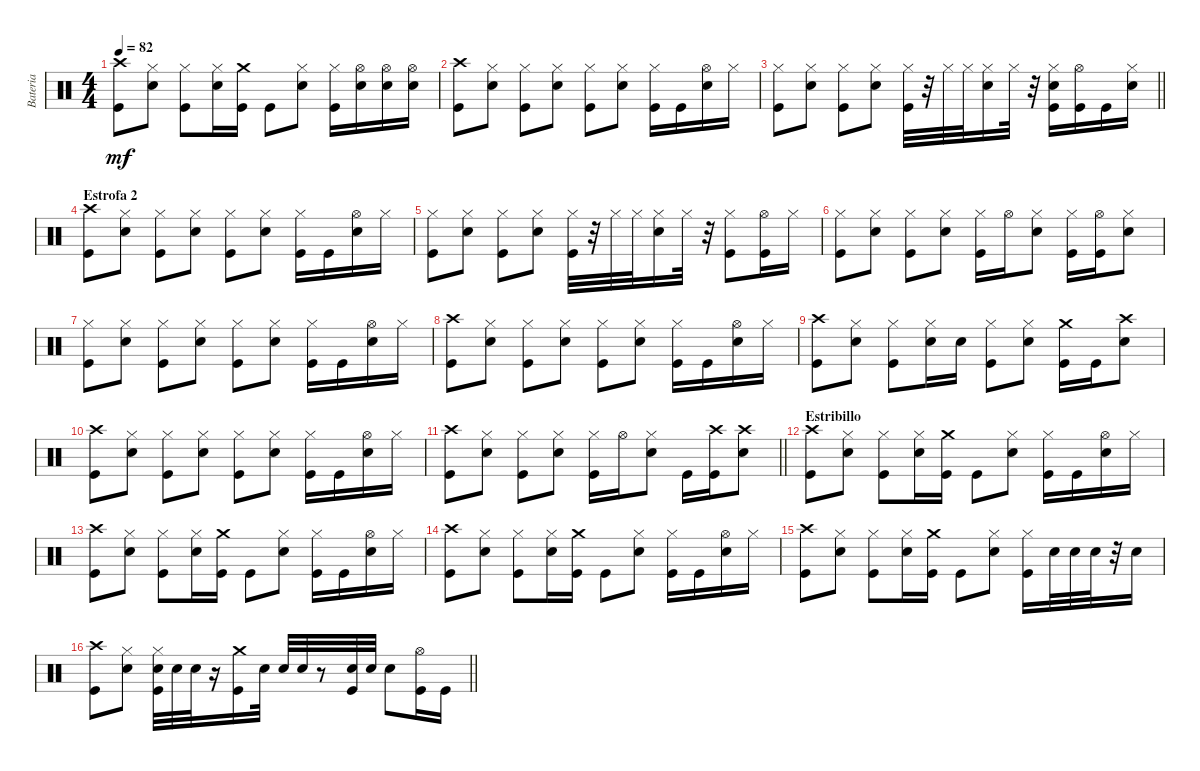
\track ("Bateria" "Bateria") {instrument percussion}
\staff {score}
\articulation defaults
\ts (4 4)
\tempo 82
\clef neutral
\ks c
("Crash high (hit)" "Kick (hit)").8{dy mf} ("Snare (hit) 2" "Hi-Hat (closed)").8 ("Kick (hit)" "Hi-Hat (closed)").8 ("Hi-Hat (closed)" "Snare (hit) 2").16 ("Kick (hit)" "Crash medium (hit)").16 "Kick (hit)".8 ("Snare (hit) 2" "Hi-Hat (closed)").8 ("Kick (hit)" "Hi-Hat (closed)").16 ("Snare (hit) 2" "Hi-Hat (open)").16 ("Snare (hit) 2" "Hi-Hat (open)").16 ("Hi-Hat (open)" "Snare (hit) 2").16 |
("Crash high (hit)" "Kick (hit)").8 ("Snare (hit) 2" "Hi-Hat (closed)").8 ("Kick (hit)" "Hi-Hat (closed)").8 ("Hi-Hat (closed)" "Snare (hit) 2").8 ("Kick (hit)" "Hi-Hat (closed)").8 ("Snare (hit) 2" "Hi-Hat (closed)").8 ("Kick (hit)" "Hi-Hat (closed)").16 "Kick (hit)".16 ("Hi-Hat (open)" "Snare (hit) 2").16 "Hi-Hat (closed)".16 |
\barLineRight lightlight
("Kick (hit)" "Hi-Hat (closed)").8 ("Snare (hit) 2" "Hi-Hat (closed)").8 ("Kick (hit)" "Hi-Hat (closed)").8 ("Hi-Hat (closed)" "Snare (hit) 2").8 ("Kick (hit)" "Hi-Hat (closed)").32 r.32 "Hi-Hat (closed)".32 "Hi-Hat (closed)".32 ("Hi-Hat (closed)" "Snare (hit) 2").16 "Hi-Hat (closed)".32 r.32 ("Kick (hit)" "Hi-Hat (closed)" "Snare (hit) 2").16 ("Kick (hit)" "Hi-Hat (open)").16 "Kick (hit)".16 ("Hi-Hat (closed)" "Snare (hit) 2").16 |
\section ("" "Estrofa 2")
("Crash high (hit)" "Kick (hit)").8 ("Snare (hit) 2" "Hi-Hat (closed)").8 ("Kick (hit)" "Hi-Hat (closed)").8 ("Hi-Hat (closed)" "Snare (hit) 2").8 ("Kick (hit)" "Hi-Hat (closed)").8 ("Snare (hit) 2" "Hi-Hat (closed)").8 ("Kick (hit)" "Hi-Hat (closed)").16 "Kick (hit)".16 ("Hi-Hat (open)" "Snare (hit) 2").16 "Hi-Hat (closed)".16 |
("Kick (hit)" "Hi-Hat (closed)").8 ("Snare (hit) 2" "Hi-Hat (closed)").8 ("Kick (hit)" "Hi-Hat (closed)").8 ("Hi-Hat (closed)" "Snare (hit) 2").8 ("Kick (hit)" "Hi-Hat (closed)").32 r.32 "Hi-Hat (closed)".32 "Hi-Hat (closed)".32 ("Hi-Hat (closed)" "Snare (hit) 2").16 "Hi-Hat (closed)".32 r.32 ("Kick (hit)" "Hi-Hat (closed)").8 ("Kick (hit)" "Hi-Hat (open)").16 "Hi-Hat (closed)".16 |
("Kick (hit)" "Hi-Hat (closed)").8 ("Snare (hit) 2" "Hi-Hat (closed)").8 ("Kick (hit)" "Hi-Hat (closed)").8 ("Hi-Hat (closed)" "Snare (hit) 2").8 ("Kick (hit)" "Hi-Hat (closed)").16 "Hi-Hat (open)".16 ("Snare (hit) 2" "Hi-Hat (closed)").8 ("Kick (hit)" "Hi-Hat (closed)").16 ("Kick (hit)" "Hi-Hat (open)").16 ("Hi-Hat (closed)" "Snare (hit) 2").8 |
("Kick (hit)" "Hi-Hat (closed)").8 ("Snare (hit) 2" "Hi-Hat (closed)").8 ("Kick (hit)" "Hi-Hat (closed)").8 ("Hi-Hat (closed)" "Snare (hit) 2").8 ("Kick (hit)" "Hi-Hat (closed)").8 ("Snare (hit) 2" "Hi-Hat (closed)").8 ("Kick (hit)" "Hi-Hat (closed)").16 "Kick (hit)".16 ("Hi-Hat (open)" "Snare (hit) 2").16 "Hi-Hat (closed)".16 |
("Crash high (hit)" "Kick (hit)").8 ("Snare (hit) 2" "Hi-Hat (closed)").8 ("Kick (hit)" "Hi-Hat (closed)").8 ("Hi-Hat (closed)" "Snare (hit) 2").8 ("Kick (hit)" "Hi-Hat (closed)").8 ("Snare (hit) 2" "Hi-Hat (closed)").8 ("Kick (hit)" "Hi-Hat (closed)").16 "Kick (hit)".16 ("Hi-Hat (open)" "Snare (hit) 2").16 "Hi-Hat (closed)".16 |
("Crash high (hit)" "Kick (hit)").8 ("Snare (hit) 2" "Hi-Hat (closed)").8 ("Kick (hit)" "Hi-Hat (closed)").8 ("Hi-Hat (closed)" "Snare (hit) 2").16 "Snare (hit) 2".16 ("Kick (hit)" "Hi-Hat (closed)").8 ("Snare (hit) 2" "Hi-Hat (closed)").8 ("Kick (hit)" "Crash medium (hit)").16 "Kick (hit)".16 ("Snare (hit) 2" "Crash high (hit)").8 |
("Crash high (hit)" "Kick (hit)").8 ("Snare (hit) 2" "Hi-Hat (closed)").8 ("Kick (hit)" "Hi-Hat (closed)").8 ("Hi-Hat (closed)" "Snare (hit) 2").8 ("Kick (hit)" "Hi-Hat (closed)").8 ("Snare (hit) 2" "Hi-Hat (closed)").8 ("Kick (hit)" "Hi-Hat (closed)").16 "Kick (hit)".16 ("Hi-Hat (open)" "Snare (hit) 2").16 "Hi-Hat (closed)".16 |
\barLineRight lightlight
("Crash high (hit)" "Kick (hit)").8 ("Snare (hit) 2" "Hi-Hat (closed)").8 ("Kick (hit)" "Hi-Hat (closed)").8 ("Hi-Hat (closed)" "Snare (hit) 2").8 ("Kick (hit)" "Hi-Hat (closed)").16 "Hi-Hat (open)".16 ("Snare (hit) 2" "Hi-Hat (closed)").8 "Kick (hit)".16 ("Kick (hit)" "Crash high (hit)").16 ("Snare (hit) 2" "Crash high (hit)").8 |
\section ("" "Estribillo")
("Crash high (hit)" "Kick (hit)").8 ("Snare (hit) 2" "Hi-Hat (closed)").8 ("Kick (hit)" "Hi-Hat (closed)").8 ("Hi-Hat (closed)" "Snare (hit) 2").16 ("Kick (hit)" "Crash medium (hit)").16 "Kick (hit)".8 ("Snare (hit) 2" "Hi-Hat (closed)").8 ("Kick (hit)" "Hi-Hat (closed)").16 "Kick (hit)".16 ("Hi-Hat (open)" "Snare (hit) 2").16 "Hi-Hat (closed)".16 |
("Crash high (hit)" "Kick (hit)").8 ("Snare (hit) 2" "Hi-Hat (closed)").8 ("Kick (hit)" "Hi-Hat (closed)").8 ("Hi-Hat (closed)" "Snare (hit) 2").16 ("Kick (hit)" "Crash medium (hit)").16 "Kick (hit)".8 ("Snare (hit) 2" "Hi-Hat (closed)").8 ("Kick (hit)" "Hi-Hat (closed)").16 "Kick (hit)".16 ("Hi-Hat (open)" "Snare (hit) 2").16 "Hi-Hat (closed)".16 |
("Crash high (hit)" "Kick (hit)").8 ("Snare (hit) 2" "Hi-Hat (closed)").8 ("Kick (hit)" "Hi-Hat (closed)").8 ("Hi-Hat (closed)" "Snare (hit) 2").16 ("Kick (hit)" "Crash medium (hit)").16 "Kick (hit)".8 ("Snare (hit) 2" "Hi-Hat (closed)").8 ("Kick (hit)" "Hi-Hat (closed)").16 "Kick (hit)".16 ("Hi-Hat (open)" "Snare (hit) 2").16 "Hi-Hat (closed)".16 |
("Crash high (hit)" "Kick (hit)").8 ("Snare (hit) 2" "Hi-Hat (closed)").8 ("Kick (hit)" "Hi-Hat (closed)").8 ("Hi-Hat (closed)" "Snare (hit) 2").16 ("Kick (hit)" "Crash medium (hit)").16 "Kick (hit)".8 ("Snare (hit) 2" "Hi-Hat (closed)").8 ("Kick (hit)" "Hi-Hat (closed)").16 "Snare (hit) 2".32 "Snare (hit) 2".32 "Snare (hit) 2".32 r.32 "Snare (hit) 2".16 |
\barLineRight lightlight
("Crash high (hit)" "Kick (hit)").8 ("Snare (hit) 2" "Hi-Hat (closed)").8 ("Kick (hit)" "Hi-Hat (closed)" "Snare (hit) 2").32 "Snare (hit) 2".32 "Snare (hit) 2".32 r.16 ("Kick (hit)" "Crash medium (hit)").16 "Snare (hit) 2".32 "Snare (hit) 2".32 "Snare (hit) 2".32 r.8 ("Kick (hit)" "Snare (hit) 2").32 "Snare (hit) 2".32 "Snare (hit) 2".8 ("Kick (hit)" "Hi-Hat (open)").16 "Kick (hit)".16
